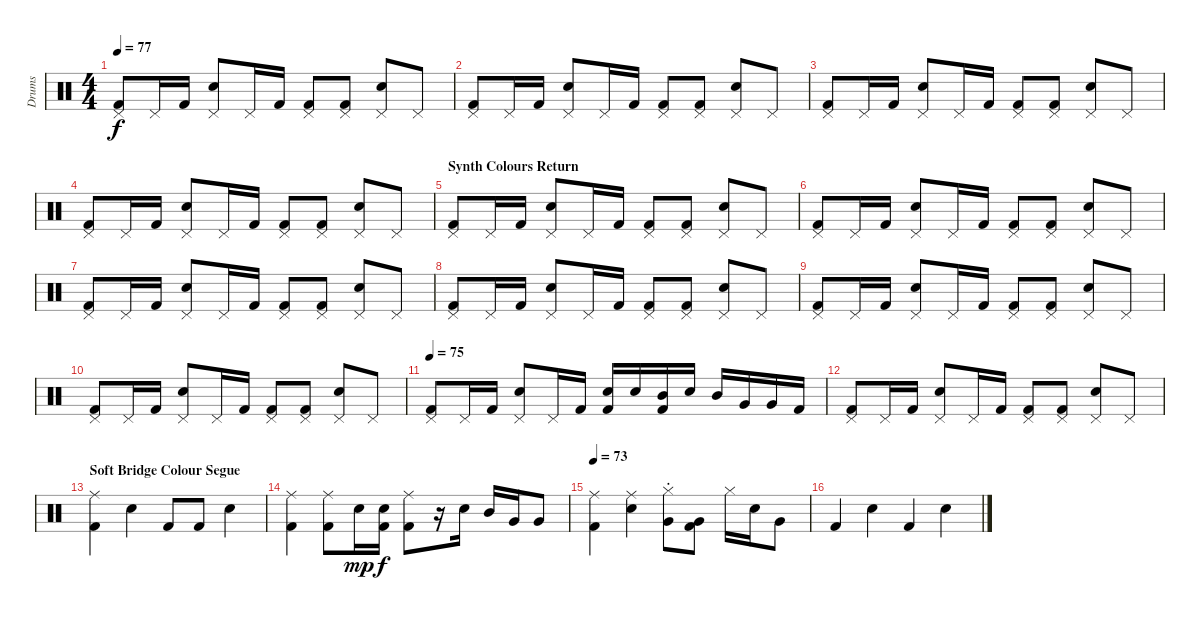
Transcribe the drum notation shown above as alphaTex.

\track ("Drums" "Drums") {instrument percussion}
\staff {score}
\articulation defaults
\ts (4 4)
\tempo 77
\clef neutral
\ks c
("Pedal Hi-Hat (hit)" "Kick (hit) 2").8{dy f} "Pedal Hi-Hat (hit)".16 "Kick (hit) 2".16 ("Pedal Hi-Hat (hit)" "Electric Snare (hit)").8 "Pedal Hi-Hat (hit)".16 "Kick (hit) 2".16 ("Pedal Hi-Hat (hit)" "Kick (hit) 2").8 ("Pedal Hi-Hat (hit)" "Kick (hit) 2").8 ("Pedal Hi-Hat (hit)" "Electric Snare (hit)").8 "Pedal Hi-Hat (hit)".8 |
("Pedal Hi-Hat (hit)" "Kick (hit) 2").8 "Pedal Hi-Hat (hit)".16 "Kick (hit) 2".16 ("Pedal Hi-Hat (hit)" "Electric Snare (hit)").8 "Pedal Hi-Hat (hit)".16 "Kick (hit) 2".16 ("Pedal Hi-Hat (hit)" "Kick (hit) 2").8 ("Pedal Hi-Hat (hit)" "Kick (hit) 2").8 ("Pedal Hi-Hat (hit)" "Electric Snare (hit)").8 "Pedal Hi-Hat (hit)".8 |
("Pedal Hi-Hat (hit)" "Kick (hit) 2").8 "Pedal Hi-Hat (hit)".16 "Kick (hit) 2".16 ("Pedal Hi-Hat (hit)" "Electric Snare (hit)").8 "Pedal Hi-Hat (hit)".16 "Kick (hit) 2".16 ("Pedal Hi-Hat (hit)" "Kick (hit) 2").8 ("Pedal Hi-Hat (hit)" "Kick (hit) 2").8 ("Pedal Hi-Hat (hit)" "Electric Snare (hit)").8 "Pedal Hi-Hat (hit)".8 |
("Pedal Hi-Hat (hit)" "Kick (hit) 2").8 "Pedal Hi-Hat (hit)".16 "Kick (hit) 2".16 ("Pedal Hi-Hat (hit)" "Electric Snare (hit)").8 "Pedal Hi-Hat (hit)".16 "Kick (hit) 2".16 ("Pedal Hi-Hat (hit)" "Kick (hit) 2").8 ("Pedal Hi-Hat (hit)" "Kick (hit) 2").8 ("Pedal Hi-Hat (hit)" "Electric Snare (hit)").8 "Pedal Hi-Hat (hit)".8 |
\section ("" "Synth Colours Return")
("Pedal Hi-Hat (hit)" "Kick (hit) 2").8 "Pedal Hi-Hat (hit)".16 "Kick (hit) 2".16 ("Pedal Hi-Hat (hit)" "Electric Snare (hit)").8 "Pedal Hi-Hat (hit)".16 "Kick (hit) 2".16 ("Pedal Hi-Hat (hit)" "Kick (hit) 2").8 ("Pedal Hi-Hat (hit)" "Kick (hit) 2").8 ("Pedal Hi-Hat (hit)" "Electric Snare (hit)").8 "Pedal Hi-Hat (hit)".8 |
("Pedal Hi-Hat (hit)" "Kick (hit) 2").8 "Pedal Hi-Hat (hit)".16 "Kick (hit) 2".16 ("Pedal Hi-Hat (hit)" "Electric Snare (hit)").8 "Pedal Hi-Hat (hit)".16 "Kick (hit) 2".16 ("Pedal Hi-Hat (hit)" "Kick (hit) 2").8 ("Pedal Hi-Hat (hit)" "Kick (hit) 2").8 ("Pedal Hi-Hat (hit)" "Electric Snare (hit)").8 "Pedal Hi-Hat (hit)".8 |
("Pedal Hi-Hat (hit)" "Kick (hit) 2").8 "Pedal Hi-Hat (hit)".16 "Kick (hit) 2".16 ("Pedal Hi-Hat (hit)" "Electric Snare (hit)").8 "Pedal Hi-Hat (hit)".16 "Kick (hit) 2".16 ("Pedal Hi-Hat (hit)" "Kick (hit) 2").8 ("Pedal Hi-Hat (hit)" "Kick (hit) 2").8 ("Pedal Hi-Hat (hit)" "Electric Snare (hit)").8 "Pedal Hi-Hat (hit)".8 |
("Pedal Hi-Hat (hit)" "Kick (hit) 2").8 "Pedal Hi-Hat (hit)".16 "Kick (hit) 2".16 ("Pedal Hi-Hat (hit)" "Electric Snare (hit)").8 "Pedal Hi-Hat (hit)".16 "Kick (hit) 2".16 ("Pedal Hi-Hat (hit)" "Kick (hit) 2").8 ("Pedal Hi-Hat (hit)" "Kick (hit) 2").8 ("Pedal Hi-Hat (hit)" "Electric Snare (hit)").8 "Pedal Hi-Hat (hit)".8 |
("Pedal Hi-Hat (hit)" "Kick (hit) 2").8 "Pedal Hi-Hat (hit)".16 "Kick (hit) 2".16 ("Pedal Hi-Hat (hit)" "Electric Snare (hit)").8 "Pedal Hi-Hat (hit)".16 "Kick (hit) 2".16 ("Pedal Hi-Hat (hit)" "Kick (hit) 2").8 ("Pedal Hi-Hat (hit)" "Kick (hit) 2").8 ("Pedal Hi-Hat (hit)" "Electric Snare (hit)").8 "Pedal Hi-Hat (hit)".8 |
("Pedal Hi-Hat (hit)" "Kick (hit) 2").8 "Pedal Hi-Hat (hit)".16 "Kick (hit) 2".16 ("Pedal Hi-Hat (hit)" "Electric Snare (hit)").8 "Pedal Hi-Hat (hit)".16 "Kick (hit) 2".16 ("Pedal Hi-Hat (hit)" "Kick (hit) 2").8 ("Pedal Hi-Hat (hit)" "Kick (hit) 2").8 ("Pedal Hi-Hat (hit)" "Electric Snare (hit)").8 "Pedal Hi-Hat (hit)".8 |
\tempo 75
("Pedal Hi-Hat (hit)" "Kick (hit) 2").8 "Pedal Hi-Hat (hit)".16 "Kick (hit) 2".16 ("Pedal Hi-Hat (hit)" "Electric Snare (hit)").8 "Pedal Hi-Hat (hit)".16 "Kick (hit) 2".16 ("Electric Snare (hit)" "Kick (hit) 2").16 "Electric Snare (hit)".16 ("Mid Tom (hit)" "Kick (hit) 2").16 "Electric Snare (hit)".16 "Mid Tom (hit)".16 "Very Low Tom (hit)".16 "Very Low Tom (hit)".16 "Kick (hit) 2".16 |
("Pedal Hi-Hat (hit)" "Kick (hit) 2").8 "Pedal Hi-Hat (hit)".16 "Kick (hit) 2".16 ("Pedal Hi-Hat (hit)" "Electric Snare (hit)").8 "Pedal Hi-Hat (hit)".16 "Kick (hit) 2".16 ("Pedal Hi-Hat (hit)" "Kick (hit) 2").8 ("Pedal Hi-Hat (hit)" "Kick (hit) 2").8 ("Pedal Hi-Hat (hit)" "Electric Snare (hit)").8 "Pedal Hi-Hat (hit)".8 |
\section ("" "Soft Bridge Colour Segue")
("Ride (middle)" "Kick (hit) 2").4 "Electric Snare (hit)".4 "Kick (hit) 2".8 "Kick (hit) 2".8 "Electric Snare (hit)".4 |
("Ride (middle)" "Kick (hit) 2").4 ("Ride (middle)" "Kick (hit) 2").8 "Electric Snare (hit)".16{dy mp} ("Electric Snare (hit)" "Kick (hit) 2").16{dy f} ("Ride (middle)" "Kick (hit) 2").8 r.16 "Electric Snare (hit)".16 "Mid Tom (hit)".16 "Very Low Tom (hit)".16 "Very Low Tom (hit)".8 |
\tempo 73
("Ride (middle)" "Kick (hit) 2").4 ("Ride (middle)" "Electric Snare (hit)").4 ("Hi-Hat (closed)" "Very Low Tom (hit)"{st}).8 ("Very Low Tom (hit)" "Kick (hit) 2").8 "Hi-Hat (closed)".16 "Electric Snare (hit)".16 "Very Low Tom (hit)".8 |
"Kick (hit) 2".4 "Electric Snare (hit)".4 "Kick (hit) 2".4 "Electric Snare (hit)".4
